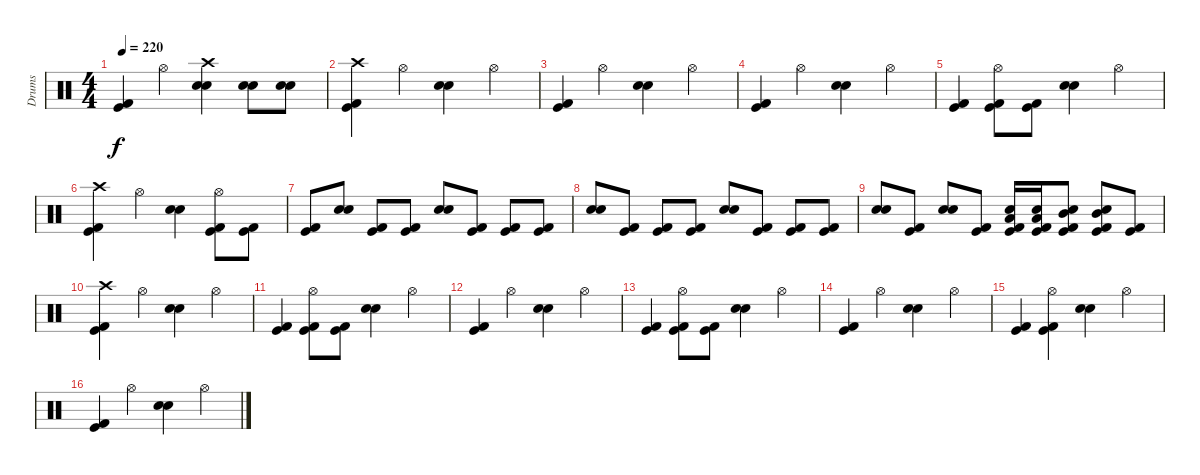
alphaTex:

\track ("Drums" "Drums") {instrument percussion}
\staff {score}
\articulation defaults
\ts (4 4)
\tempo 220
\clef neutral
\ks c
("Kick (hit) 2" "Kick (hit)").4{dy f} "Hi-Hat (open)".4 ("Crash high (hit)" "Electric Snare (hit)" "Snare (hit) 2").4 ("Electric Snare (hit)" "Snare (hit) 2").8 ("Electric Snare (hit)" "Snare (hit) 2").8 |
("Crash high (hit)" "Kick (hit) 2" "Kick (hit)").4 "Hi-Hat (open)".4 ("Electric Snare (hit)" "Snare (hit) 2").4 "Hi-Hat (open)".4 |
("Kick (hit) 2" "Kick (hit)").4 "Hi-Hat (open)".4 ("Electric Snare (hit)" "Snare (hit) 2").4 "Hi-Hat (open)".4 |
("Kick (hit) 2" "Kick (hit)").4 "Hi-Hat (open)".4 ("Electric Snare (hit)" "Snare (hit) 2").4 "Hi-Hat (open)".4 |
("Kick (hit) 2" "Kick (hit)").4 ("Hi-Hat (open)" "Kick (hit) 2" "Kick (hit)").8 ("Kick (hit) 2" "Kick (hit)").8 ("Electric Snare (hit)" "Snare (hit) 2").4 "Hi-Hat (open)".4 |
("Crash high (hit)" "Kick (hit) 2" "Kick (hit)").4 "Hi-Hat (open)".4 ("Electric Snare (hit)" "Snare (hit) 2").4 ("Hi-Hat (open)" "Kick (hit) 2" "Kick (hit)").8 ("Kick (hit) 2" "Kick (hit)").8 |
("Kick (hit) 2" "Kick (hit)").8 ("Electric Snare (hit)" "Snare (hit) 2").8 ("Kick (hit) 2" "Kick (hit)").8 ("Kick (hit) 2" "Kick (hit)").8 ("Electric Snare (hit)" "Snare (hit) 2").8 ("Kick (hit) 2" "Kick (hit)").8 ("Kick (hit) 2" "Kick (hit)").8 ("Kick (hit) 2" "Kick (hit)").8 |
("Electric Snare (hit)" "Snare (hit) 2").8 ("Kick (hit) 2" "Kick (hit)").8 ("Kick (hit) 2" "Kick (hit)").8 ("Kick (hit) 2" "Kick (hit)").8 ("Electric Snare (hit)" "Snare (hit) 2").8 ("Kick (hit) 2" "Kick (hit)").8 ("Kick (hit) 2" "Kick (hit)").8 ("Kick (hit) 2" "Kick (hit)").8 |
("Electric Snare (hit)" "Snare (hit) 2").8 ("Kick (hit) 2" "Kick (hit)").8 ("Electric Snare (hit)" "Snare (hit) 2").8 ("Kick (hit) 2" "Kick (hit)").8 ("Low Floor Tom (hit)" "Electric Snare (hit)" "Kick (hit) 2" "Kick (hit)").16 ("Low Floor Tom (hit)" "Electric Snare (hit)" "Kick (hit) 2" "Kick (hit)").16 ("Mid Tom (hit)" "Electric Snare (hit)" "Kick (hit) 2" "Kick (hit)").8 ("Mid Tom (hit)" "Electric Snare (hit)" "Kick (hit) 2" "Kick (hit)").8 ("Kick (hit) 2" "Kick (hit)").8 |
("Crash high (hit)" "Kick (hit) 2" "Kick (hit)").4 "Hi-Hat (open)".4 ("Electric Snare (hit)" "Snare (hit) 2").4 "Hi-Hat (open)".4 |
("Kick (hit) 2" "Kick (hit)").4 ("Hi-Hat (open)" "Kick (hit) 2" "Kick (hit)").8 ("Kick (hit) 2" "Kick (hit)").8 ("Electric Snare (hit)" "Snare (hit) 2").4 "Hi-Hat (open)".4 |
("Kick (hit) 2" "Kick (hit)").4 "Hi-Hat (open)".4 ("Electric Snare (hit)" "Snare (hit) 2").4 "Hi-Hat (open)".4 |
("Kick (hit) 2" "Kick (hit)").4 ("Hi-Hat (open)" "Kick (hit) 2" "Kick (hit)").8 ("Kick (hit) 2" "Kick (hit)").8 ("Electric Snare (hit)" "Snare (hit) 2").4 "Hi-Hat (open)".4 |
("Kick (hit) 2" "Kick (hit)").4 "Hi-Hat (open)".4 ("Electric Snare (hit)" "Snare (hit) 2").4 "Hi-Hat (open)".4 |
("Kick (hit) 2" "Kick (hit)").4 ("Hi-Hat (open)" "Kick (hit) 2" "Kick (hit)").4 ("Electric Snare (hit)" "Snare (hit) 2").4 "Hi-Hat (open)".4 |
("Kick (hit) 2" "Kick (hit)").4 "Hi-Hat (open)".4 ("Electric Snare (hit)" "Snare (hit) 2").4 "Hi-Hat (open)".4
